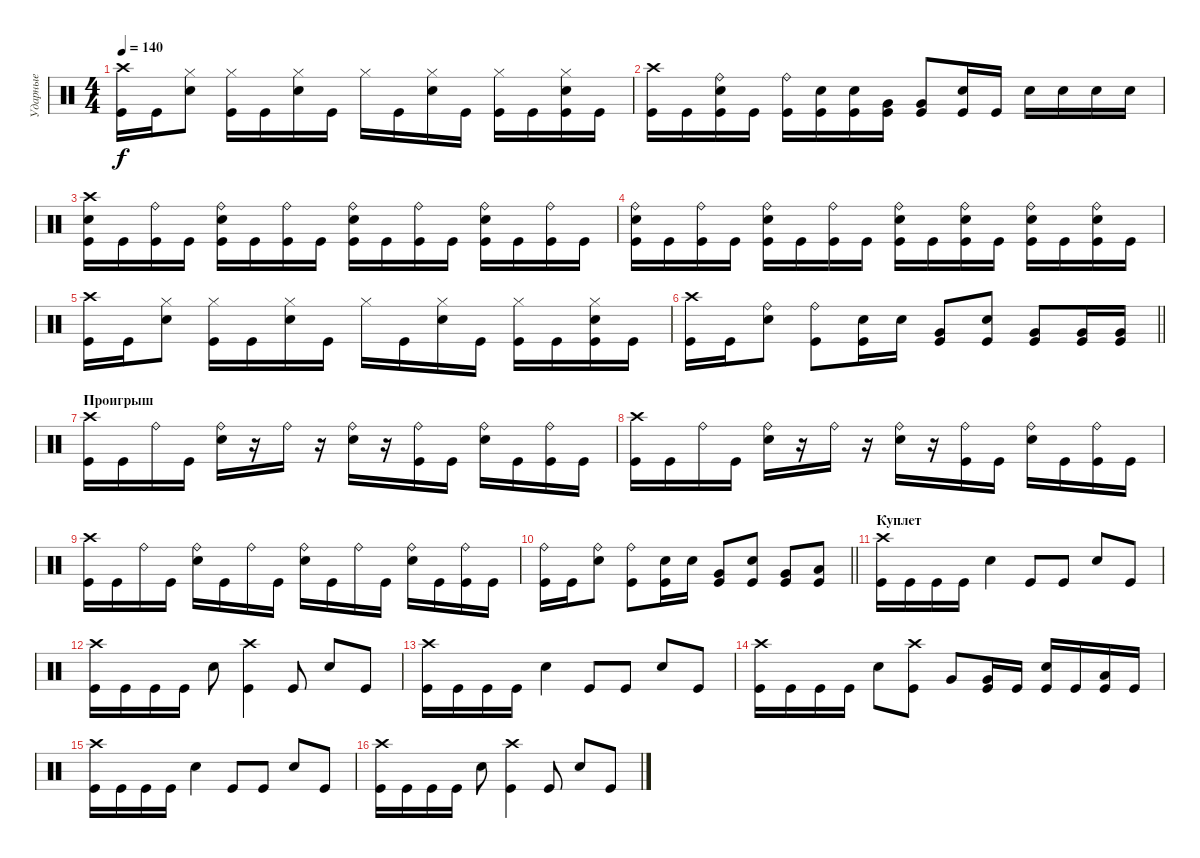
\track ("Ударные" "Ударные") {instrument percussion}
\staff {score}
\articulation defaults
\ts (4 4)
\tempo 140
\clef neutral
\ks c
("Crash high (hit)" "Kick (hit)").16{dy f} "Kick (hit)".16 ("Hi-Hat (closed)" "Electric Snare (hit)").8 ("Hi-Hat (closed)" "Kick (hit)").16 "Kick (hit)".16 ("Hi-Hat (closed)" "Electric Snare (hit)").16 "Kick (hit)".16 "Hi-Hat (closed)".16 "Kick (hit)".16 ("Hi-Hat (closed)" "Electric Snare (hit)").16 "Kick (hit)".16 ("Hi-Hat (closed)" "Kick (hit)").16 "Kick (hit)".16 ("Hi-Hat (closed)" "Electric Snare (hit)" "Kick (hit)").16 "Kick (hit)".16 |
("Crash high (hit)" "Kick (hit)").16 "Kick (hit)".16 ("Ride (bell)" "Electric Snare (hit)" "Kick (hit)").16 "Kick (hit)".16 ("Ride (bell)" "Kick (hit)").16 ("Electric Snare (hit)" "Kick (hit)").16 ("Electric Snare (hit)" "Kick (hit)").16 ("Very Low Tom (hit)" "Kick (hit)").16 ("Very Low Tom (hit)" "Kick (hit)").8 ("Electric Snare (hit)" "Kick (hit)").16 "Kick (hit)".16 "Electric Snare (hit)".16 "Electric Snare (hit)".16 "Electric Snare (hit)".16 "Electric Snare (hit)".16 |
("Crash high (hit)" "Electric Snare (hit)" "Kick (hit)").16 "Kick (hit)".16 ("Ride (bell)" "Kick (hit)").16 "Kick (hit)".16 ("Ride (bell)" "Electric Snare (hit)" "Kick (hit)").16 "Kick (hit)".16 ("Ride (bell)" "Kick (hit)").16 "Kick (hit)".16 ("Ride (bell)" "Electric Snare (hit)" "Kick (hit)").16 "Kick (hit)".16 ("Ride (bell)" "Kick (hit)").16 "Kick (hit)".16 ("Ride (bell)" "Electric Snare (hit)" "Kick (hit)").16 "Kick (hit)".16 ("Ride (bell)" "Kick (hit)").16 "Kick (hit)".16 |
("Ride (bell)" "Electric Snare (hit)" "Kick (hit)").16 "Kick (hit)".16 ("Ride (bell)" "Kick (hit)").16 "Kick (hit)".16 ("Ride (bell)" "Electric Snare (hit)" "Kick (hit)").16 "Kick (hit)".16 ("Ride (bell)" "Kick (hit)").16 "Kick (hit)".16 ("Ride (bell)" "Electric Snare (hit)" "Kick (hit)").16 "Kick (hit)".16 ("Ride (bell)" "Electric Snare (hit)" "Kick (hit)").16 "Kick (hit)".16 ("Ride (bell)" "Electric Snare (hit)" "Kick (hit)").16 "Kick (hit)".16 ("Ride (bell)" "Electric Snare (hit)" "Kick (hit)").16 "Kick (hit)".16 |
("Crash high (hit)" "Kick (hit)").16 "Kick (hit)".16 ("Hi-Hat (closed)" "Electric Snare (hit)").8 ("Hi-Hat (closed)" "Kick (hit)").16 "Kick (hit)".16 ("Hi-Hat (closed)" "Electric Snare (hit)").16 "Kick (hit)".16 "Hi-Hat (closed)".16 "Kick (hit)".16 ("Hi-Hat (closed)" "Electric Snare (hit)").16 "Kick (hit)".16 ("Hi-Hat (closed)" "Kick (hit)").16 "Kick (hit)".16 ("Hi-Hat (closed)" "Electric Snare (hit)" "Kick (hit)").16 "Kick (hit)".16 |
\barLineRight lightlight
("Crash high (hit)" "Kick (hit)").16 "Kick (hit)".16 ("Ride (bell)" "Electric Snare (hit)").8 ("Ride (bell)" "Kick (hit)").8 ("Electric Snare (hit)" "Kick (hit)").16 "Electric Snare (hit)".16 ("Very Low Tom (hit)" "Kick (hit)").8 ("Electric Snare (hit)" "Kick (hit)").8 ("Very Low Tom (hit)" "Kick (hit)").8 ("Very Low Tom (hit)" "Kick (hit)").16 ("Very Low Tom (hit)" "Kick (hit)").16 |
\section ("" "Проигрыш")
("Crash high (hit)" "Kick (hit)").16 "Kick (hit)".16 "Ride (bell)".16 "Kick (hit)".16 ("Ride (bell)" "Electric Snare (hit)").16 r.16 "Ride (bell)".16 r.16 ("Ride (bell)" "Electric Snare (hit)").16 r.16 ("Ride (bell)" "Kick (hit)").16 "Kick (hit)".16 ("Ride (bell)" "Electric Snare (hit)").16 "Kick (hit)".16 ("Ride (bell)" "Kick (hit)").16 "Kick (hit)".16 |
("Crash high (hit)" "Kick (hit)").16 "Kick (hit)".16 "Ride (bell)".16 "Kick (hit)".16 ("Ride (bell)" "Electric Snare (hit)").16 r.16 "Ride (bell)".16 r.16 ("Ride (bell)" "Electric Snare (hit)").16 r.16 ("Ride (bell)" "Kick (hit)").16 "Kick (hit)".16 ("Ride (bell)" "Electric Snare (hit)").16 "Kick (hit)".16 ("Ride (bell)" "Kick (hit)").16 "Kick (hit)".16 |
("Crash high (hit)" "Kick (hit)").16 "Kick (hit)".16 "Ride (bell)".16 "Kick (hit)".16 ("Ride (bell)" "Electric Snare (hit)").16 "Kick (hit)".16 "Ride (bell)".16 "Kick (hit)".16 ("Ride (bell)" "Electric Snare (hit)").16 "Kick (hit)".16 "Ride (bell)".16 "Kick (hit)".16 ("Ride (bell)" "Electric Snare (hit)").16 "Kick (hit)".16 ("Ride (bell)" "Kick (hit)").16 "Kick (hit)".16 |
\barLineRight lightlight
("Ride (bell)" "Kick (hit)").16 "Kick (hit)".16 ("Ride (bell)" "Electric Snare (hit)").8 ("Ride (bell)" "Kick (hit)").8 ("Electric Snare (hit)" "Kick (hit)").16 "Electric Snare (hit)".16 ("Very Low Tom (hit)" "Kick (hit)").8 ("Electric Snare (hit)" "Kick (hit)").8 ("Very Low Tom (hit)" "Kick (hit)").8 ("Low Tom (hit)" "Kick (hit)").8 |
\section ("" "Куплет")
("Crash high (hit)" "Kick (hit)").16 "Kick (hit)".16 "Kick (hit)".16 "Kick (hit)".16 "Electric Snare (hit)".4 "Kick (hit)".8 "Kick (hit)".8 "Electric Snare (hit)".8 "Kick (hit)".8 |
("Crash high (hit)" "Kick (hit)").16 "Kick (hit)".16 "Kick (hit)".16 "Kick (hit)".16 "Electric Snare (hit)".8 ("Crash high (hit)" "Kick (hit)").4 "Kick (hit)".8 "Electric Snare (hit)".8 "Kick (hit)".8 |
("Crash high (hit)" "Kick (hit)").16 "Kick (hit)".16 "Kick (hit)".16 "Kick (hit)".16 "Electric Snare (hit)".4 "Kick (hit)".8 "Kick (hit)".8 "Electric Snare (hit)".8 "Kick (hit)".8 |
("Crash high (hit)" "Kick (hit)").16 "Kick (hit)".16 "Kick (hit)".16 "Kick (hit)".16 "Electric Snare (hit)".8 ("Crash high (hit)" "Kick (hit)").8 "Very Low Tom (hit)".8 ("Very Low Tom (hit)" "Kick (hit)").16 "Kick (hit)".16 ("Electric Snare (hit)" "Kick (hit)").16 "Kick (hit)".16 ("Low Tom (hit)" "Kick (hit)").16 "Kick (hit)".16 |
("Crash high (hit)" "Kick (hit)").16 "Kick (hit)".16 "Kick (hit)".16 "Kick (hit)".16 "Electric Snare (hit)".4 "Kick (hit)".8 "Kick (hit)".8 "Electric Snare (hit)".8 "Kick (hit)".8 |
("Crash high (hit)" "Kick (hit)").16 "Kick (hit)".16 "Kick (hit)".16 "Kick (hit)".16 "Electric Snare (hit)".8 ("Crash high (hit)" "Kick (hit)").4 "Kick (hit)".8 "Electric Snare (hit)".8 "Kick (hit)".8
